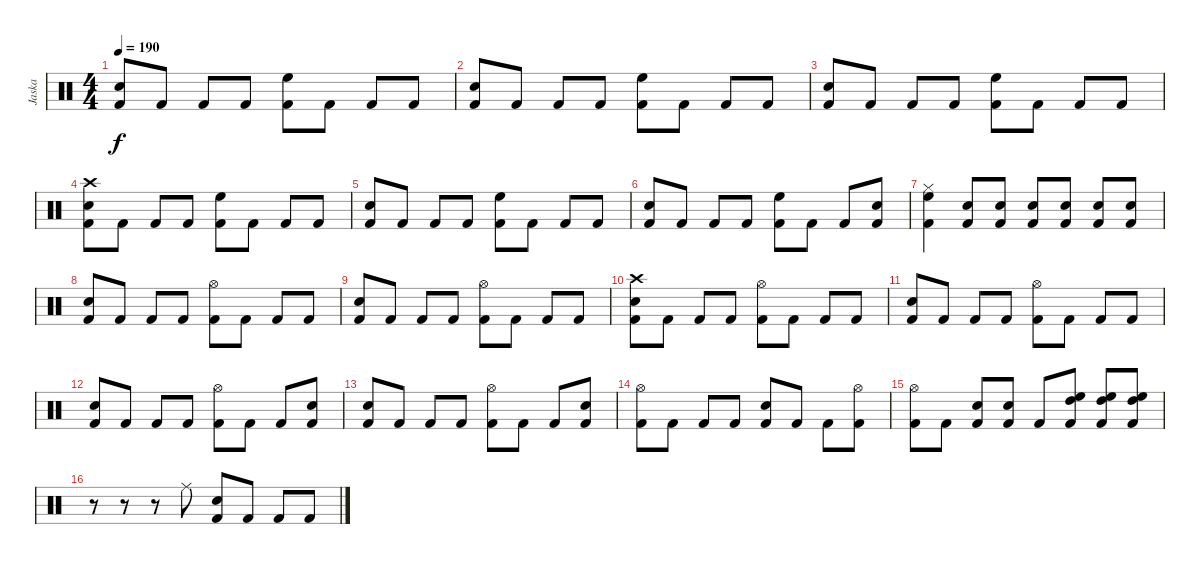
\track ("Jaska" "Jaska") {instrument percussion}
\staff {score}
\articulation defaults
\ts (4 4)
\tempo 190
\clef neutral
\ks c
("Kick (hit) 2" "Electric Snare (hit)").8{dy f} "Kick (hit) 2".8 "Kick (hit) 2".8 "Kick (hit) 2".8 ("Kick (hit) 2" "High Floor Tom (hit)").8 "Kick (hit) 2".8 "Kick (hit) 2".8 "Kick (hit) 2".8 |
("Kick (hit) 2" "Electric Snare (hit)").8 "Kick (hit) 2".8 "Kick (hit) 2".8 "Kick (hit) 2".8 ("Kick (hit) 2" "High Floor Tom (hit)").8 "Kick (hit) 2".8 "Kick (hit) 2".8 "Kick (hit) 2".8 |
("Kick (hit) 2" "Electric Snare (hit)").8 "Kick (hit) 2".8 "Kick (hit) 2".8 "Kick (hit) 2".8 ("Kick (hit) 2" "High Floor Tom (hit)").8 "Kick (hit) 2".8 "Kick (hit) 2".8 "Kick (hit) 2".8 |
("Kick (hit) 2" "Electric Snare (hit)" "Crash high (hit)").8 "Kick (hit) 2".8 "Kick (hit) 2".8 "Kick (hit) 2".8 ("Kick (hit) 2" "High Floor Tom (hit)").8 "Kick (hit) 2".8 "Kick (hit) 2".8 "Kick (hit) 2".8 |
("Kick (hit) 2" "Electric Snare (hit)").8 "Kick (hit) 2".8 "Kick (hit) 2".8 "Kick (hit) 2".8 ("Kick (hit) 2" "High Floor Tom (hit)").8 "Kick (hit) 2".8 "Kick (hit) 2".8 "Kick (hit) 2".8 |
("Kick (hit) 2" "Electric Snare (hit)").8 "Kick (hit) 2".8 "Kick (hit) 2".8 "Kick (hit) 2".8 ("Kick (hit) 2" "High Floor Tom (hit)").8 "Kick (hit) 2".8 "Kick (hit) 2".8 ("Kick (hit) 2" "Electric Snare (hit)").8 |
("Kick (hit) 2" "Hi-Hat (closed)" "High Floor Tom (hit)").4 ("Kick (hit) 2" "Electric Snare (hit)").8 ("Kick (hit) 2" "Electric Snare (hit)").8 ("Kick (hit) 2" "Electric Snare (hit)").8 ("Kick (hit) 2" "Electric Snare (hit)").8 ("Kick (hit) 2" "Electric Snare (hit)").8 ("Kick (hit) 2" "Electric Snare (hit)").8 |
("Kick (hit) 2" "Electric Snare (hit)").8 "Kick (hit) 2".8 "Kick (hit) 2".8 "Kick (hit) 2".8 ("Kick (hit) 2" "Hi-Hat (open)").8 "Kick (hit) 2".8 "Kick (hit) 2".8 "Kick (hit) 2".8 |
("Kick (hit) 2" "Electric Snare (hit)").8 "Kick (hit) 2".8 "Kick (hit) 2".8 "Kick (hit) 2".8 ("Kick (hit) 2" "Hi-Hat (open)").8 "Kick (hit) 2".8 "Kick (hit) 2".8 "Kick (hit) 2".8 |
("Kick (hit) 2" "Electric Snare (hit)" "Crash high (hit)").8 "Kick (hit) 2".8 "Kick (hit) 2".8 "Kick (hit) 2".8 ("Kick (hit) 2" "Hi-Hat (open)").8 "Kick (hit) 2".8 "Kick (hit) 2".8 "Kick (hit) 2".8 |
("Kick (hit) 2" "Electric Snare (hit)").8 "Kick (hit) 2".8 "Kick (hit) 2".8 "Kick (hit) 2".8 ("Kick (hit) 2" "Hi-Hat (open)").8 "Kick (hit) 2".8 "Kick (hit) 2".8 "Kick (hit) 2".8 |
("Kick (hit) 2" "Electric Snare (hit)").8 "Kick (hit) 2".8 "Kick (hit) 2".8 "Kick (hit) 2".8 ("Kick (hit) 2" "Hi-Hat (open)").8 "Kick (hit) 2".8 "Kick (hit) 2".8 ("Kick (hit) 2" "Electric Snare (hit)").8 |
("Kick (hit) 2" "Electric Snare (hit)").8 "Kick (hit) 2".8 "Kick (hit) 2".8 "Kick (hit) 2".8 ("Kick (hit) 2" "Hi-Hat (open)").8 "Kick (hit) 2".8 "Kick (hit) 2".8 ("Kick (hit) 2" "Electric Snare (hit)").8 |
("Kick (hit) 2" "Hi-Hat (open)").8 "Kick (hit) 2".8 "Kick (hit) 2".8 "Kick (hit) 2".8 ("Kick (hit) 2" "Electric Snare (hit)").8 "Kick (hit) 2".8 "Kick (hit) 2".8 ("Kick (hit) 2" "Hi-Hat (open)").8 |
("Kick (hit) 2" "Hi-Hat (open)").8 "Kick (hit) 2".8 ("Kick (hit) 2" "Electric Snare (hit)").8 ("Kick (hit) 2" "Electric Snare (hit)").8 "Kick (hit) 2".8 ("Kick (hit) 2" "High Tom (hit)" "High Floor Tom (hit)").8 ("Kick (hit) 2" "High Tom (hit)" "High Floor Tom (hit)").8 ("Kick (hit) 2" "High Tom (hit)" "High Floor Tom (hit)").8 |
r.8 r.8 r.8 "Ride (middle)".8 ("Kick (hit) 2" "Electric Snare (hit)").8 "Kick (hit) 2".8 "Kick (hit) 2".8 "Kick (hit) 2".8
